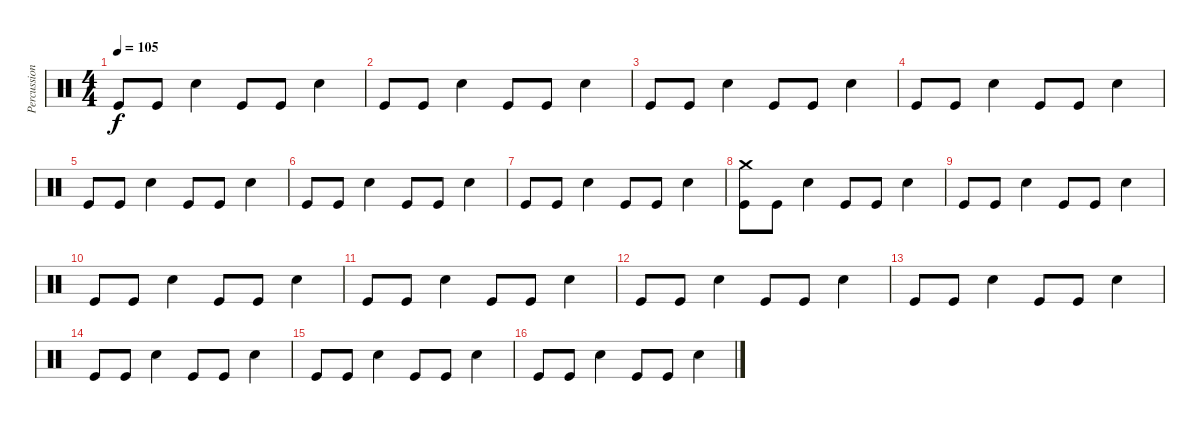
\track ("Percussions" "Percussion") {instrument percussion}
\staff {score}
\articulation defaults
\ts (4 4)
\tempo 105
\clef neutral
\ks c "Kick (hit)".8{dy f} "Kick (hit)".8 "Electric Snare (hit)".4 "Kick (hit)".8 "Kick (hit)".8 "Electric Snare (hit)".4
|
"Kick (hit)".8 "Kick (hit)".8 "Electric Snare (hit)".4 "Kick (hit)".8 "Kick (hit)".8 "Electric Snare (hit)".4 |
"Kick (hit)".8 "Kick (hit)".8 "Electric Snare (hit)".4 "Kick (hit)".8 "Kick (hit)".8 "Electric Snare (hit)".4 |
"Kick (hit)".8 "Kick (hit)".8 "Electric Snare (hit)".4 "Kick (hit)".8 "Kick (hit)".8 "Electric Snare (hit)".4 |
"Kick (hit)".8 "Kick (hit)".8 "Electric Snare (hit)".4 "Kick (hit)".8 "Kick (hit)".8 "Electric Snare (hit)".4 |
"Kick (hit)".8 "Kick (hit)".8 "Electric Snare (hit)".4 "Kick (hit)".8 "Kick (hit)".8 "Electric Snare (hit)".4 |
"Kick (hit)".8 "Kick (hit)".8 "Electric Snare (hit)".4 "Kick (hit)".8 "Kick (hit)".8 "Electric Snare (hit)".4 |
("Kick (hit)" "Crash medium (hit)").8 "Kick (hit)".8 "Electric Snare (hit)".4 "Kick (hit)".8 "Kick (hit)".8 "Electric Snare (hit)".4 |
"Kick (hit)".8 "Kick (hit)".8 "Electric Snare (hit)".4 "Kick (hit)".8 "Kick (hit)".8 "Electric Snare (hit)".4 |
"Kick (hit)".8 "Kick (hit)".8 "Electric Snare (hit)".4 "Kick (hit)".8 "Kick (hit)".8 "Electric Snare (hit)".4 |
"Kick (hit)".8 "Kick (hit)".8 "Electric Snare (hit)".4 "Kick (hit)".8 "Kick (hit)".8 "Electric Snare (hit)".4 |
"Kick (hit)".8 "Kick (hit)".8 "Electric Snare (hit)".4 "Kick (hit)".8 "Kick (hit)".8 "Electric Snare (hit)".4 |
"Kick (hit)".8 "Kick (hit)".8 "Electric Snare (hit)".4 "Kick (hit)".8 "Kick (hit)".8 "Electric Snare (hit)".4 |
"Kick (hit)".8 "Kick (hit)".8 "Electric Snare (hit)".4 "Kick (hit)".8 "Kick (hit)".8 "Electric Snare (hit)".4 |
"Kick (hit)".8 "Kick (hit)".8 "Electric Snare (hit)".4 "Kick (hit)".8 "Kick (hit)".8 "Electric Snare (hit)".4 |
"Kick (hit)".8 "Kick (hit)".8 "Electric Snare (hit)".4 "Kick (hit)".8 "Kick (hit)".8 "Electric Snare (hit)".4
